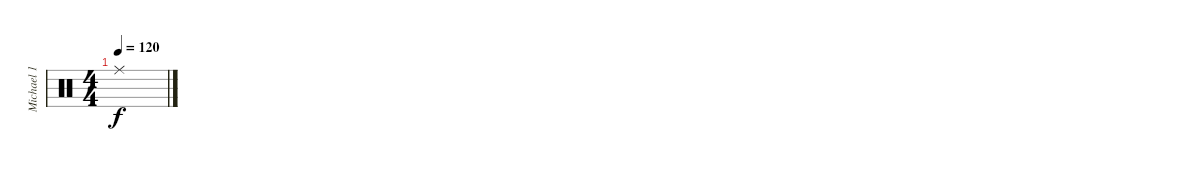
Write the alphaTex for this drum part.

\track ("Michael 1" "Michael 1") {instrument percussion}
\staff {score}
\articulation defaults
\ts (4 4)
\tempo 120
\clef neutral
\ks c "Ride (middle)".1{dy f}
